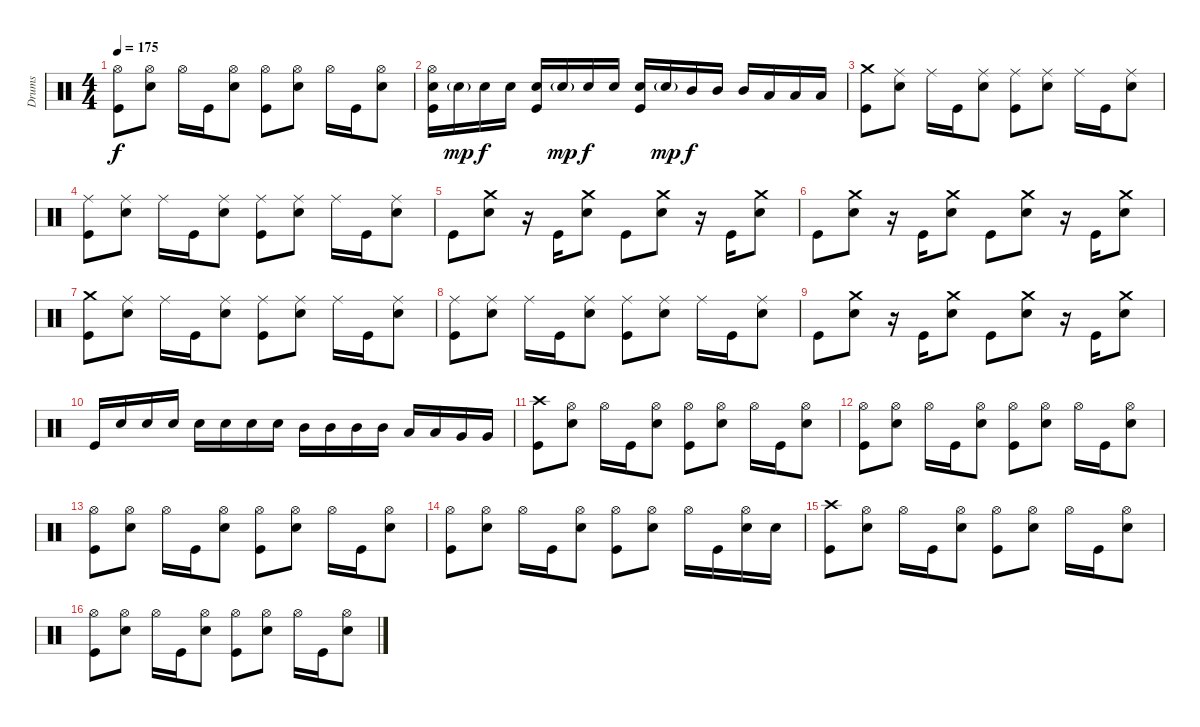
\track ("Drums" "Drums") {instrument percussion}
\staff {score}
\articulation defaults
\ts (4 4)
\tempo 175
\clef neutral
\ks c
("Hi-Hat (open)" "Kick (hit)").8{dy f} ("Hi-Hat (open)" "Electric Snare (hit)").8 "Hi-Hat (open)".16 "Kick (hit)".16 ("Hi-Hat (open)" "Electric Snare (hit)").8 ("Hi-Hat (open)" "Kick (hit)").8 ("Hi-Hat (open)" "Electric Snare (hit)").8 "Hi-Hat (open)".16 "Kick (hit)".16 ("Hi-Hat (open)" "Electric Snare (hit)").8 |
("Hi-Hat (open)" "Electric Snare (hit)" "Kick (hit)").16 "Electric Snare (hit)"{g}.16{dy mp} "Electric Snare (hit)".16{dy f} "Electric Snare (hit)".16 ("Electric Snare (hit)" "Kick (hit)").16 "Electric Snare (hit)"{g}.16{dy mp} "Electric Snare (hit)".16{dy f} "Electric Snare (hit)".16 ("Electric Snare (hit)" "Kick (hit)").16 "Electric Snare (hit)"{g}.16{dy mp} "Mid Tom (hit)".16{dy f} "Mid Tom (hit)".16 "Mid Tom (hit)".16 "Low Tom (hit)".16 "Low Tom (hit)".16 "Low Tom (hit)".16 |
("Crash medium (hit)" "Kick (hit)").8 ("Ride (middle)" "Electric Snare (hit)").8 "Ride (middle)".16 "Kick (hit)".16 ("Ride (middle)" "Electric Snare (hit)").8 ("Ride (middle)" "Kick (hit)").8 ("Ride (middle)" "Electric Snare (hit)").8 "Ride (middle)".16 "Kick (hit)".16 ("Ride (middle)" "Electric Snare (hit)").8 |
("Ride (middle)" "Kick (hit)").8 ("Ride (middle)" "Electric Snare (hit)").8 "Ride (middle)".16 "Kick (hit)".16 ("Ride (middle)" "Electric Snare (hit)").8 ("Ride (middle)" "Kick (hit)").8 ("Ride (middle)" "Electric Snare (hit)").8 "Ride (middle)".16 "Kick (hit)".16 ("Ride (middle)" "Electric Snare (hit)").8 |
"Kick (hit)".8 ("Crash medium (hit)" "Electric Snare (hit)").8 r.16 "Kick (hit)".16 ("Crash medium (hit)" "Electric Snare (hit)").8 "Kick (hit)".8 ("Crash medium (hit)" "Electric Snare (hit)").8 r.16 "Kick (hit)".16 ("Crash medium (hit)" "Electric Snare (hit)").8 |
"Kick (hit)".8 ("Crash medium (hit)" "Electric Snare (hit)").8 r.16 "Kick (hit)".16 ("Crash medium (hit)" "Electric Snare (hit)").8 "Kick (hit)".8 ("Crash medium (hit)" "Electric Snare (hit)").8 r.16 "Kick (hit)".16 ("Crash medium (hit)" "Electric Snare (hit)").8 |
("Crash medium (hit)" "Kick (hit)").8 ("Ride (middle)" "Electric Snare (hit)").8 "Ride (middle)".16 "Kick (hit)".16 ("Ride (middle)" "Electric Snare (hit)").8 ("Ride (middle)" "Kick (hit)").8 ("Ride (middle)" "Electric Snare (hit)").8 "Ride (middle)".16 "Kick (hit)".16 ("Ride (middle)" "Electric Snare (hit)").8 |
("Ride (middle)" "Kick (hit)").8 ("Ride (middle)" "Electric Snare (hit)").8 "Ride (middle)".16 "Kick (hit)".16 ("Ride (middle)" "Electric Snare (hit)").8 ("Ride (middle)" "Kick (hit)").8 ("Ride (middle)" "Electric Snare (hit)").8 "Ride (middle)".16 "Kick (hit)".16 ("Ride (middle)" "Electric Snare (hit)").8 |
"Kick (hit)".8 ("Crash medium (hit)" "Electric Snare (hit)").8 r.16 "Kick (hit)".16 ("Crash medium (hit)" "Electric Snare (hit)").8 "Kick (hit)".8 ("Crash medium (hit)" "Electric Snare (hit)").8 r.16 "Kick (hit)".16 ("Crash medium (hit)" "Electric Snare (hit)").8 |
"Kick (hit)".16 "Electric Snare (hit)".16 "Electric Snare (hit)".16 "Electric Snare (hit)".16 "Electric Snare (hit)".16 "Electric Snare (hit)".16 "Electric Snare (hit)".16 "Electric Snare (hit)".16 "Mid Tom (hit)".16 "Mid Tom (hit)".16 "Mid Tom (hit)".16 "Mid Tom (hit)".16 "Low Tom (hit)".16 "Low Tom (hit)".16 "Very Low Tom (hit)".16 "Very Low Tom (hit)".16 |
("Crash high (hit)" "Kick (hit)").8 ("Hi-Hat (open)" "Electric Snare (hit)").8 "Hi-Hat (open)".16 "Kick (hit)".16 ("Hi-Hat (open)" "Electric Snare (hit)").8 ("Hi-Hat (open)" "Kick (hit)").8 ("Hi-Hat (open)" "Electric Snare (hit)").8 "Hi-Hat (open)".16 "Kick (hit)".16 ("Hi-Hat (open)" "Electric Snare (hit)").8 |
("Hi-Hat (open)" "Kick (hit)").8 ("Hi-Hat (open)" "Electric Snare (hit)").8 "Hi-Hat (open)".16 "Kick (hit)".16 ("Hi-Hat (open)" "Electric Snare (hit)").8 ("Hi-Hat (open)" "Kick (hit)").8 ("Hi-Hat (open)" "Electric Snare (hit)").8 "Hi-Hat (open)".16 "Kick (hit)".16 ("Hi-Hat (open)" "Electric Snare (hit)").8 |
("Hi-Hat (open)" "Kick (hit)").8 ("Hi-Hat (open)" "Electric Snare (hit)").8 "Hi-Hat (open)".16 "Kick (hit)".16 ("Hi-Hat (open)" "Electric Snare (hit)").8 ("Hi-Hat (open)" "Kick (hit)").8 ("Hi-Hat (open)" "Electric Snare (hit)").8 "Hi-Hat (open)".16 "Kick (hit)".16 ("Hi-Hat (open)" "Electric Snare (hit)").8 |
("Hi-Hat (open)" "Kick (hit)").8 ("Hi-Hat (open)" "Electric Snare (hit)").8 "Hi-Hat (open)".16 "Kick (hit)".16 ("Hi-Hat (open)" "Electric Snare (hit)").8 ("Hi-Hat (open)" "Kick (hit)").8 ("Hi-Hat (open)" "Electric Snare (hit)").8 "Hi-Hat (open)".16 "Kick (hit)".16 ("Hi-Hat (open)" "Electric Snare (hit)").16 "Electric Snare (hit)".16 |
("Crash high (hit)" "Kick (hit)").8 ("Hi-Hat (open)" "Electric Snare (hit)").8 "Hi-Hat (open)".16 "Kick (hit)".16 ("Hi-Hat (open)" "Electric Snare (hit)").8 ("Hi-Hat (open)" "Kick (hit)").8 ("Hi-Hat (open)" "Electric Snare (hit)").8 "Hi-Hat (open)".16 "Kick (hit)".16 ("Hi-Hat (open)" "Electric Snare (hit)").8 |
("Hi-Hat (open)" "Kick (hit)").8 ("Hi-Hat (open)" "Electric Snare (hit)").8 "Hi-Hat (open)".16 "Kick (hit)".16 ("Hi-Hat (open)" "Electric Snare (hit)").8 ("Hi-Hat (open)" "Kick (hit)").8 ("Hi-Hat (open)" "Electric Snare (hit)").8 "Hi-Hat (open)".16 "Kick (hit)".16 ("Hi-Hat (open)" "Electric Snare (hit)").8
